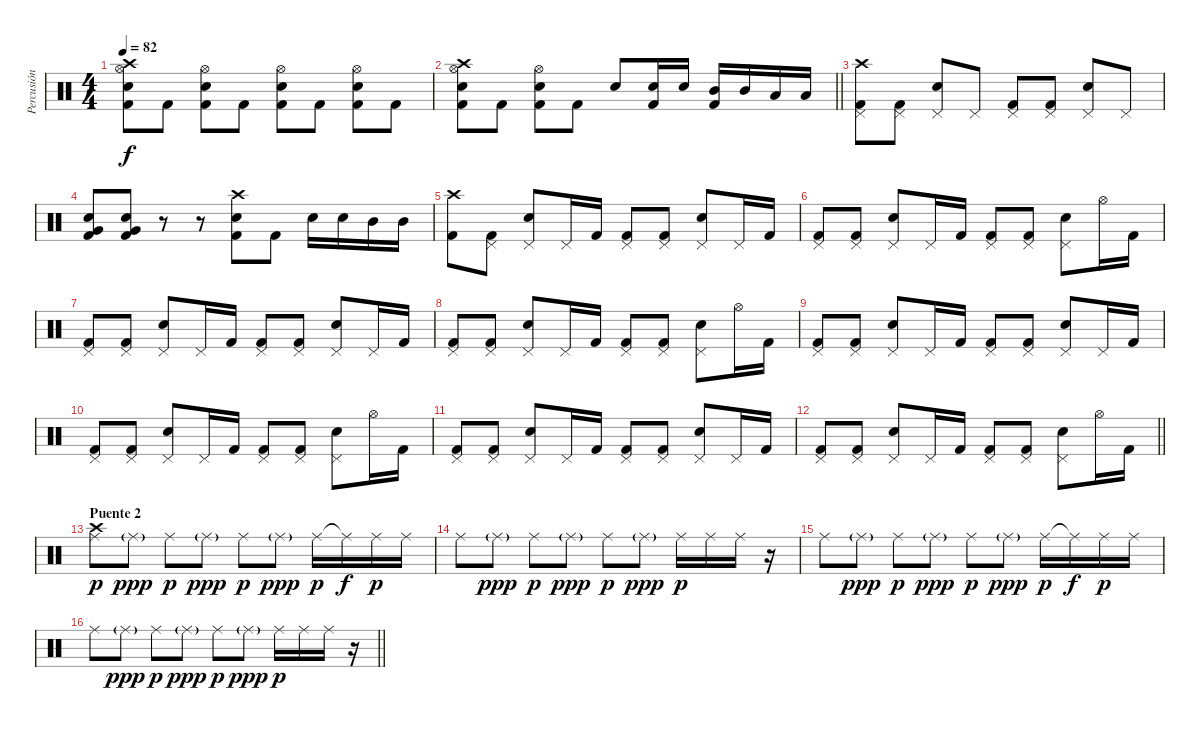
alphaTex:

\track ("Percusión" "Percusión") {instrument percussion}
\staff {score}
\articulation defaults
\ts (4 4)
\tempo 82
\clef neutral
\ks c
("Crash high (hit)" "Hi-Hat (open)" "Snare (hit) 2" "Kick (hit) 2").8{dy f} "Kick (hit) 2".8 ("Hi-Hat (open)" "Snare (hit) 2" "Kick (hit) 2").8 "Kick (hit) 2".8 ("Hi-Hat (open)" "Snare (hit) 2" "Kick (hit) 2").8 "Kick (hit) 2".8 ("Hi-Hat (open)" "Snare (hit) 2" "Kick (hit) 2").8 "Kick (hit) 2".8 |
\barLineRight lightlight
("Crash high (hit)" "Hi-Hat (open)" "Snare (hit) 2" "Kick (hit) 2").8 "Kick (hit) 2".8 ("Hi-Hat (open)" "Snare (hit) 2" "Kick (hit) 2").8 "Kick (hit) 2".8 "Snare (hit) 2".8 ("Snare (hit) 2" "Kick (hit) 2").16 "Snare (hit) 2".16 ("Mid Tom (hit)" "Kick (hit) 2").16 "Mid Tom (hit)".16 "Low Tom (hit)".16 "Low Tom (hit)".16 |
("Crash high (hit)" "Pedal Hi-Hat (hit)" "Kick (hit) 2").8 ("Pedal Hi-Hat (hit)" "Kick (hit) 2").8 ("Pedal Hi-Hat (hit)" "Snare (hit) 2").8 "Pedal Hi-Hat (hit)".8 ("Pedal Hi-Hat (hit)" "Kick (hit) 2").8 ("Pedal Hi-Hat (hit)" "Kick (hit) 2").8 ("Pedal Hi-Hat (hit)" "Snare (hit) 2").8 "Pedal Hi-Hat (hit)".8 |
("Very Low Tom (hit)" "Snare (hit) 2" "Kick (hit) 2").8 ("Very Low Tom (hit)" "Snare (hit) 2" "Kick (hit) 2").8 r.8 r.8 ("Crash high (hit)" "Snare (hit) 2" "Kick (hit) 2").8 "Kick (hit) 2".8 "Snare (hit) 2".16 "Snare (hit) 2".16 "Mid Tom (hit)".16 "Mid Tom (hit)".16 |
("Crash high (hit)" "Kick (hit) 2").8 ("Pedal Hi-Hat (hit)" "Kick (hit) 2").8 ("Pedal Hi-Hat (hit)" "Snare (hit) 2").8 "Pedal Hi-Hat (hit)".16 "Kick (hit) 2".16 ("Pedal Hi-Hat (hit)" "Kick (hit) 2").8 ("Pedal Hi-Hat (hit)" "Kick (hit) 2").8 ("Pedal Hi-Hat (hit)" "Snare (hit) 2").8 "Pedal Hi-Hat (hit)".16 "Kick (hit) 2".16 |
("Pedal Hi-Hat (hit)" "Kick (hit) 2").8 ("Pedal Hi-Hat (hit)" "Kick (hit) 2").8 ("Pedal Hi-Hat (hit)" "Snare (hit) 2").8 "Pedal Hi-Hat (hit)".16 "Kick (hit) 2".16 ("Pedal Hi-Hat (hit)" "Kick (hit) 2").8 ("Pedal Hi-Hat (hit)" "Kick (hit) 2").8 ("Pedal Hi-Hat (hit)" "Snare (hit) 2").8 "Hi-Hat (open)".16 "Kick (hit) 2".16 |
("Pedal Hi-Hat (hit)" "Kick (hit) 2").8 ("Pedal Hi-Hat (hit)" "Kick (hit) 2").8 ("Pedal Hi-Hat (hit)" "Snare (hit) 2").8 "Pedal Hi-Hat (hit)".16 "Kick (hit) 2".16 ("Pedal Hi-Hat (hit)" "Kick (hit) 2").8 ("Pedal Hi-Hat (hit)" "Kick (hit) 2").8 ("Pedal Hi-Hat (hit)" "Snare (hit) 2").8 "Pedal Hi-Hat (hit)".16 "Kick (hit) 2".16 |
("Pedal Hi-Hat (hit)" "Kick (hit) 2").8 ("Pedal Hi-Hat (hit)" "Kick (hit) 2").8 ("Pedal Hi-Hat (hit)" "Snare (hit) 2").8 "Pedal Hi-Hat (hit)".16 "Kick (hit) 2".16 ("Pedal Hi-Hat (hit)" "Kick (hit) 2").8 ("Pedal Hi-Hat (hit)" "Kick (hit) 2").8 ("Pedal Hi-Hat (hit)" "Snare (hit) 2").8 "Hi-Hat (open)".16 "Kick (hit) 2".16 |
("Pedal Hi-Hat (hit)" "Kick (hit) 2").8 ("Pedal Hi-Hat (hit)" "Kick (hit) 2").8 ("Pedal Hi-Hat (hit)" "Snare (hit) 2").8 "Pedal Hi-Hat (hit)".16 "Kick (hit) 2".16 ("Pedal Hi-Hat (hit)" "Kick (hit) 2").8 ("Pedal Hi-Hat (hit)" "Kick (hit) 2").8 ("Pedal Hi-Hat (hit)" "Snare (hit) 2").8 "Pedal Hi-Hat (hit)".16 "Kick (hit) 2".16 |
("Pedal Hi-Hat (hit)" "Kick (hit) 2").8 ("Pedal Hi-Hat (hit)" "Kick (hit) 2").8 ("Pedal Hi-Hat (hit)" "Snare (hit) 2").8 "Pedal Hi-Hat (hit)".16 "Kick (hit) 2".16 ("Pedal Hi-Hat (hit)" "Kick (hit) 2").8 ("Pedal Hi-Hat (hit)" "Kick (hit) 2").8 ("Pedal Hi-Hat (hit)" "Snare (hit) 2").8 "Hi-Hat (open)".16 "Kick (hit) 2".16 |
("Pedal Hi-Hat (hit)" "Kick (hit) 2").8 ("Pedal Hi-Hat (hit)" "Kick (hit) 2").8 ("Pedal Hi-Hat (hit)" "Snare (hit) 2").8 "Pedal Hi-Hat (hit)".16 "Kick (hit) 2".16 ("Pedal Hi-Hat (hit)" "Kick (hit) 2").8 ("Pedal Hi-Hat (hit)" "Kick (hit) 2").8 ("Pedal Hi-Hat (hit)" "Snare (hit) 2").8 "Pedal Hi-Hat (hit)".16 "Kick (hit) 2".16 |
\barLineRight lightlight
("Pedal Hi-Hat (hit)" "Kick (hit) 2").8 ("Pedal Hi-Hat (hit)" "Kick (hit) 2").8 ("Pedal Hi-Hat (hit)" "Snare (hit) 2").8 "Pedal Hi-Hat (hit)".16 "Kick (hit) 2".16 ("Pedal Hi-Hat (hit)" "Kick (hit) 2").8 ("Pedal Hi-Hat (hit)" "Kick (hit) 2").8 ("Pedal Hi-Hat (hit)" "Snare (hit) 2").8 "Hi-Hat (open)".16 "Kick (hit) 2".16 |
\section ("" "Puente 2")
("Crash high (hit)" "Ride (middle)").8{dy p} "Ride (middle)"{g}.8{dy ppp} "Ride (middle)".8{dy p} "Ride (middle)"{g}.8{dy ppp} "Ride (middle)".8{dy p} "Ride (middle)"{g}.8{dy ppp} "Ride (middle)".16{dy p} "Ride (middle)"{t}.16{dy f} "Ride (middle)".16{dy p} "Ride (middle)".16 |
"Ride (middle)".8 "Ride (middle)"{g}.8{dy ppp} "Ride (middle)".8{dy p} "Ride (middle)"{g}.8{dy ppp} "Ride (middle)".8{dy p} "Ride (middle)"{g}.8{dy ppp} "Ride (middle)".16{dy p} "Ride (middle)".16 "Ride (middle)".16 r.16 |
"Ride (middle)".8 "Ride (middle)"{g}.8{dy ppp} "Ride (middle)".8{dy p} "Ride (middle)"{g}.8{dy ppp} "Ride (middle)".8{dy p} "Ride (middle)"{g}.8{dy ppp} "Ride (middle)".16{dy p} "Ride (middle)"{t}.16{dy f} "Ride (middle)".16{dy p} "Ride (middle)".16 |
\barLineRight lightlight "Ride (middle)".8 "Ride (middle)"{g}.8{dy ppp} "Ride (middle)".8{dy p} "Ride (middle)"{g}.8{dy ppp} "Ride (middle)".8{dy p} "Ride (middle)"{g}.8{dy ppp} "Ride (middle)".16{dy p} "Ride (middle)".16 "Ride (middle)".16
r.16
